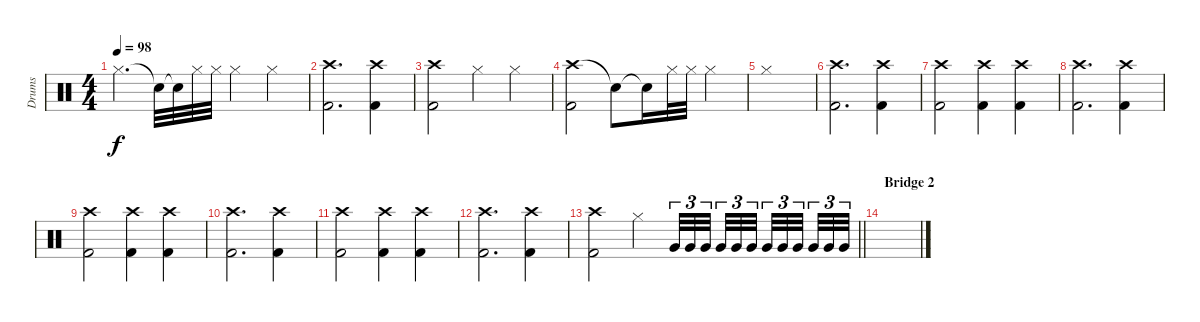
\track ("Drums" "Drums") {instrument percussion}
\staff {score}
\articulation defaults
\ts (4 4)
\tempo 98
\clef neutral
\ks c "Hi-Hat (closed)".4{d dy f} "Snare (hit)"{t}.32 "Snare (hit)"{t}.32 "Hi-Hat (closed)".32 "Hi-Hat (closed)".32 "Hi-Hat (closed)".4 "Hi-Hat (closed)".4
|
("Crash high (hit)" "Kick (hit) 2").2{d} ("Crash high (hit)" "Kick (hit) 2").4 |
("Crash high (hit)" "Kick (hit) 2").2 "Hi-Hat (closed)".4 "Hi-Hat (closed)".4 |
("Crash high (hit)" "Kick (hit) 2").2 "Snare (hit)"{t}.8 "Snare (hit)"{t}.16 "Hi-Hat (closed)".32 "Hi-Hat (closed)".32 "Hi-Hat (closed)".4 |
"Hi-Hat (closed)".1 |
("Crash high (hit)" "Kick (hit) 2").2{d} ("Crash high (hit)" "Kick (hit) 2").4 |
("Crash high (hit)" "Kick (hit) 2").2 ("Crash high (hit)" "Kick (hit) 2").4 ("Crash high (hit)" "Kick (hit) 2").4 |
("Crash high (hit)" "Kick (hit) 2").2{d} ("Crash high (hit)" "Kick (hit) 2").4 |
("Crash high (hit)" "Kick (hit) 2").2 ("Crash high (hit)" "Kick (hit) 2").4 ("Crash high (hit)" "Kick (hit) 2").4 |
("Crash high (hit)" "Kick (hit) 2").2{d} ("Crash high (hit)" "Kick (hit) 2").4 |
("Crash high (hit)" "Kick (hit) 2").2 ("Crash high (hit)" "Kick (hit) 2").4 ("Crash high (hit)" "Kick (hit) 2").4 |
("Crash high (hit)" "Kick (hit) 2").2{d} ("Crash high (hit)" "Kick (hit) 2").4 |
\barLineRight lightlight
("Crash high (hit)" "Kick (hit) 2").2 "Hi-Hat (closed)".4 "Very Low Tom (hit)".32{tu (3 2) volume 6} "Very Low Tom (hit)".32{tu (3 2)} "Very Low Tom (hit)".32{tu (3 2) beam splitsecondary} "Very Low Tom (hit)".32{tu (3 2)} "Very Low Tom (hit)".32{tu (3 2)} "Very Low Tom (hit)".32{tu (3 2) beam splitsecondary} "Very Low Tom (hit)".32{tu (3 2)} "Very Low Tom (hit)".32{tu (3 2)} "Very Low Tom (hit)".32{tu (3 2) beam splitsecondary} "Very Low Tom (hit)".32{tu (3 2)} "Very Low Tom (hit)".32{tu (3 2)} "Very Low Tom (hit)".32{tu (3 2)} |
\section ("" "Bridge 2")
